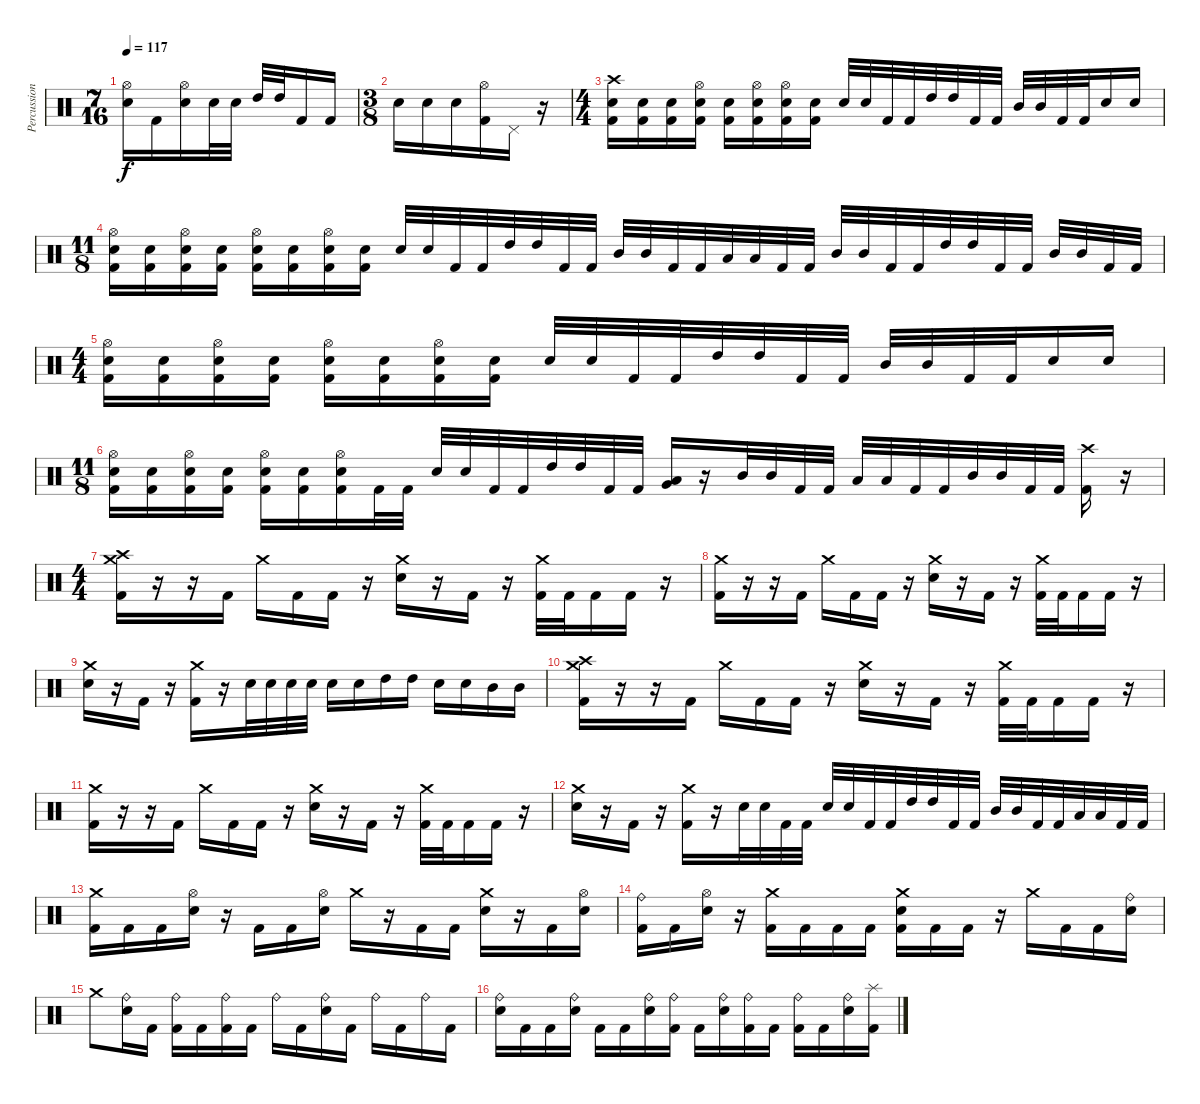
\track ("Percussion" "Percussion") {instrument percussion}
\staff {score}
\articulation defaults
\ts (7 16)
\tempo 117
\clef neutral
\ks c
("Hi-Hat (open)" "Electric Snare (hit)").16{dy f} "Kick (hit) 2".16 ("Hi-Hat (open)" "Electric Snare (hit)").16 "Electric Snare (hit)".32 "Electric Snare (hit)".32 "High Tom (hit)".32 "High Tom (hit)".32 "Kick (hit) 2".16 "Kick (hit) 2".16 |
\ts (3 8)
"Electric Snare (hit)".16 "Electric Snare (hit)".16 "Electric Snare (hit)".16 ("Hi-Hat (open)" "Kick (hit) 2").16 "Pedal Hi-Hat (hit)".16 r.16 |
\ts (4 4)
("Crash high (hit)" "Electric Snare (hit)" "Kick (hit) 2").16 ("Electric Snare (hit)" "Kick (hit) 2").16 ("Electric Snare (hit)" "Kick (hit) 2").16 ("Hi-Hat (open)" "Electric Snare (hit)" "Kick (hit) 2").16 ("Electric Snare (hit)" "Kick (hit) 2").16 ("Hi-Hat (open)" "Electric Snare (hit)" "Kick (hit) 2").16 ("Hi-Hat (open)" "Electric Snare (hit)" "Kick (hit) 2").16 ("Electric Snare (hit)" "Kick (hit) 2").16 "Electric Snare (hit)".32 "Electric Snare (hit)".32 "Kick (hit) 2".32 "Kick (hit) 2".32 "High Tom (hit)".32 "High Tom (hit)".32 "Kick (hit) 2".32 "Kick (hit) 2".32 "Mid Tom (hit)".32 "Mid Tom (hit)".32 "Kick (hit) 2".32 "Kick (hit) 2".32 "Electric Snare (hit)".16 "Electric Snare (hit)".16 |
\ts (11 8)
("Hi-Hat (open)" "Electric Snare (hit)" "Kick (hit) 2").16 ("Electric Snare (hit)" "Kick (hit) 2").16 ("Hi-Hat (open)" "Electric Snare (hit)" "Kick (hit) 2").16 ("Electric Snare (hit)" "Kick (hit) 2").16 ("Hi-Hat (open)" "Electric Snare (hit)" "Kick (hit) 2").16 ("Electric Snare (hit)" "Kick (hit) 2").16 ("Hi-Hat (open)" "Electric Snare (hit)" "Kick (hit) 2").16 ("Electric Snare (hit)" "Kick (hit) 2").16 "Electric Snare (hit)".32 "Electric Snare (hit)".32 "Kick (hit) 2".32 "Kick (hit) 2".32 "High Tom (hit)".32 "High Tom (hit)".32 "Kick (hit) 2".32 "Kick (hit) 2".32 "Mid Tom (hit)".32 "Mid Tom (hit)".32 "Kick (hit) 2".32 "Kick (hit) 2".32 "Low Tom (hit)".32 "Low Tom (hit)".32 "Kick (hit) 2".32 "Kick (hit) 2".32 "Mid Tom (hit)".32 "Mid Tom (hit)".32 "Kick (hit) 2".32 "Kick (hit) 2".32 "High Tom (hit)".32 "High Tom (hit)".32 "Kick (hit) 2".32 "Kick (hit) 2".32 "Mid Tom (hit)".32 "Mid Tom (hit)".32 "Kick (hit) 2".32 "Kick (hit) 2".32 |
\ts (4 4)
("Hi-Hat (open)" "Electric Snare (hit)" "Kick (hit) 2").16 ("Electric Snare (hit)" "Kick (hit) 2").16 ("Hi-Hat (open)" "Electric Snare (hit)" "Kick (hit) 2").16 ("Electric Snare (hit)" "Kick (hit) 2").16 ("Hi-Hat (open)" "Electric Snare (hit)" "Kick (hit) 2").16 ("Electric Snare (hit)" "Kick (hit) 2").16 ("Hi-Hat (open)" "Electric Snare (hit)" "Kick (hit) 2").16 ("Electric Snare (hit)" "Kick (hit) 2").16 "Electric Snare (hit)".32 "Electric Snare (hit)".32 "Kick (hit) 2".32 "Kick (hit) 2".32 "High Tom (hit)".32 "High Tom (hit)".32 "Kick (hit) 2".32 "Kick (hit) 2".32 "Mid Tom (hit)".32 "Mid Tom (hit)".32 "Kick (hit) 2".32 "Kick (hit) 2".32 "Electric Snare (hit)".16 "Electric Snare (hit)".16 |
\ts (11 8)
("Hi-Hat (open)" "Electric Snare (hit)" "Kick (hit) 2").16 ("Electric Snare (hit)" "Kick (hit) 2").16 ("Hi-Hat (open)" "Electric Snare (hit)" "Kick (hit) 2").16 ("Electric Snare (hit)" "Kick (hit) 2").16 ("Hi-Hat (open)" "Electric Snare (hit)" "Kick (hit) 2").16 ("Electric Snare (hit)" "Kick (hit) 2").16 ("Hi-Hat (open)" "Electric Snare (hit)" "Kick (hit) 2").16 "Kick (hit) 2".32 "Kick (hit) 2".32 "Electric Snare (hit)".32 "Electric Snare (hit)".32 "Kick (hit) 2".32 "Kick (hit) 2".32 "High Tom (hit)".32 "High Tom (hit)".32 "Kick (hit) 2".32 "Kick (hit) 2".32 ("Low Tom (hit)" "Very Low Tom (hit)").16 r.16 "Mid Tom (hit)".32 "Mid Tom (hit)".32 "Kick (hit) 2".32 "Kick (hit) 2".32 "Low Tom (hit)".32 "Low Tom (hit)".32 "Kick (hit) 2".32 "Kick (hit) 2".32 "Mid Tom (hit)".32 "Mid Tom (hit)".32 "Kick (hit) 2".32 "Kick (hit) 2".32 ("Crash high (hit)" "Kick (hit) 2").16 r.16{volume 0} |
\ts (4 4)
("Crash medium (hit)" "Crash high (hit)" "Kick (hit) 2").16{volume 13} r.16 r.16 "Kick (hit) 2".16 "Crash medium (hit)".16 "Kick (hit) 2".16 "Kick (hit) 2".16 r.16 ("Crash medium (hit)" "Electric Snare (hit)").16 r.16 "Kick (hit) 2".16 r.16 ("Crash medium (hit)" "Kick (hit) 2").32 "Kick (hit) 2".32 "Kick (hit) 2".16 "Kick (hit) 2".16 r.16 |
("Crash medium (hit)" "Kick (hit) 2").16 r.16 r.16 "Kick (hit) 2".16 "Crash medium (hit)".16 "Kick (hit) 2".16 "Kick (hit) 2".16 r.16 ("Crash medium (hit)" "Electric Snare (hit)").16 r.16 "Kick (hit) 2".16 r.16 ("Crash medium (hit)" "Kick (hit) 2").32 "Kick (hit) 2".32 "Kick (hit) 2".16 "Kick (hit) 2".16 r.16 |
("Crash medium (hit)" "Electric Snare (hit)").16 r.16 "Kick (hit) 2".16 r.16 ("Crash medium (hit)" "Kick (hit) 2").16 r.16 "Electric Snare (hit)".32 "Electric Snare (hit)".32 "Electric Snare (hit)".32 "Electric Snare (hit)".32 "Electric Snare (hit)".16 "Electric Snare (hit)".16 "High Tom (hit)".16 "High Tom (hit)".16 "Electric Snare (hit)".16 "Electric Snare (hit)".16 "Mid Tom (hit)".16 "Mid Tom (hit)".16 |
("Crash medium (hit)" "Crash high (hit)" "Kick (hit) 2").16{volume 13} r.16 r.16 "Kick (hit) 2".16 "Crash medium (hit)".16 "Kick (hit) 2".16 "Kick (hit) 2".16 r.16 ("Crash medium (hit)" "Electric Snare (hit)").16 r.16 "Kick (hit) 2".16 r.16 ("Crash medium (hit)" "Kick (hit) 2").32 "Kick (hit) 2".32 "Kick (hit) 2".16 "Kick (hit) 2".16 r.16 |
("Crash medium (hit)" "Kick (hit) 2").16 r.16 r.16 "Kick (hit) 2".16 "Crash medium (hit)".16 "Kick (hit) 2".16 "Kick (hit) 2".16 r.16 ("Crash medium (hit)" "Electric Snare (hit)").16 r.16 "Kick (hit) 2".16 r.16 ("Crash medium (hit)" "Kick (hit) 2").32 "Kick (hit) 2".32 "Kick (hit) 2".16 "Kick (hit) 2".16 r.16 |
("Crash medium (hit)" "Electric Snare (hit)").16 r.16 "Kick (hit) 2".16 r.16 ("Crash medium (hit)" "Kick (hit) 2").16 r.16 "Electric Snare (hit)".32 "Electric Snare (hit)".32 "Kick (hit) 2".32 "Kick (hit) 2".32 "Electric Snare (hit)".32 "Electric Snare (hit)".32 "Kick (hit) 2".32 "Kick (hit) 2".32 "High Tom (hit)".32 "High Tom (hit)".32 "Kick (hit) 2".32 "Kick (hit) 2".32 "Mid Tom (hit)".32 "Mid Tom (hit)".32 "Kick (hit) 2".32 "Kick (hit) 2".32 "Low Tom (hit)".32 "Low Tom (hit)".32 "Kick (hit) 2".32 "Kick (hit) 2".32 |
("Crash medium (hit)" "Kick (hit) 2").16 "Kick (hit) 2".16 "Kick (hit) 2".16 ("Hi-Hat (open)" "Electric Snare (hit)").16 r.16 "Kick (hit) 2".16 "Kick (hit) 2".16 ("Hi-Hat (open)" "Electric Snare (hit)").16 "Crash medium (hit)".16 r.16 "Kick (hit) 2".16 "Kick (hit) 2".16 ("Crash medium (hit)" "Electric Snare (hit)").16 r.16 "Kick (hit) 2".16 ("Hi-Hat (open)" "Electric Snare (hit)").16 |
("Ride (bell)" "Kick (hit) 2").16 "Kick (hit) 2".16 ("Hi-Hat (open)" "Electric Snare (hit)").16 r.16 ("Crash medium (hit)" "Kick (hit) 2").16 "Kick (hit) 2".16 "Kick (hit) 2".16 "Kick (hit) 2".16 ("Crash medium (hit)" "Electric Snare (hit)" "Kick (hit) 2").16 "Kick (hit) 2".16 "Kick (hit) 2".16 r.16 "Crash medium (hit)".16 "Kick (hit) 2".16 "Kick (hit) 2".16 ("Ride (bell)" "Electric Snare (hit)").16 |
"Crash medium (hit)".8 ("Ride (bell)" "Electric Snare (hit)").16 "Kick (hit) 2".16 ("Ride (bell)" "Kick (hit) 2").16 "Kick (hit) 2".16 ("Ride (bell)" "Kick (hit) 2").16 "Kick (hit) 2".16 "Ride (bell)".16 "Kick (hit) 2".16 ("Ride (bell)" "Electric Snare (hit)").16 "Kick (hit) 2".16 "Ride (bell)".16 "Kick (hit) 2".16 "Ride (bell)".16 "Kick (hit) 2".16 |
("Ride (bell)" "Electric Snare (hit)").16 "Kick (hit) 2".16 "Kick (hit) 2".16 ("Ride (bell)" "Electric Snare (hit)").16 "Kick (hit) 2".16 "Kick (hit) 2".16 ("Ride (bell)" "Electric Snare (hit)").16 ("Ride (bell)" "Kick (hit) 2").16 "Kick (hit) 2".16 ("Ride (bell)" "Electric Snare (hit)").16 ("Ride (bell)" "Kick (hit) 2").16 "Kick (hit) 2".16 ("Ride (bell)" "Kick (hit) 2").16 "Kick (hit) 2".16 ("Ride (bell)" "Electric Snare (hit)").16 ("Splash (hit)" "Kick (hit) 2").16
